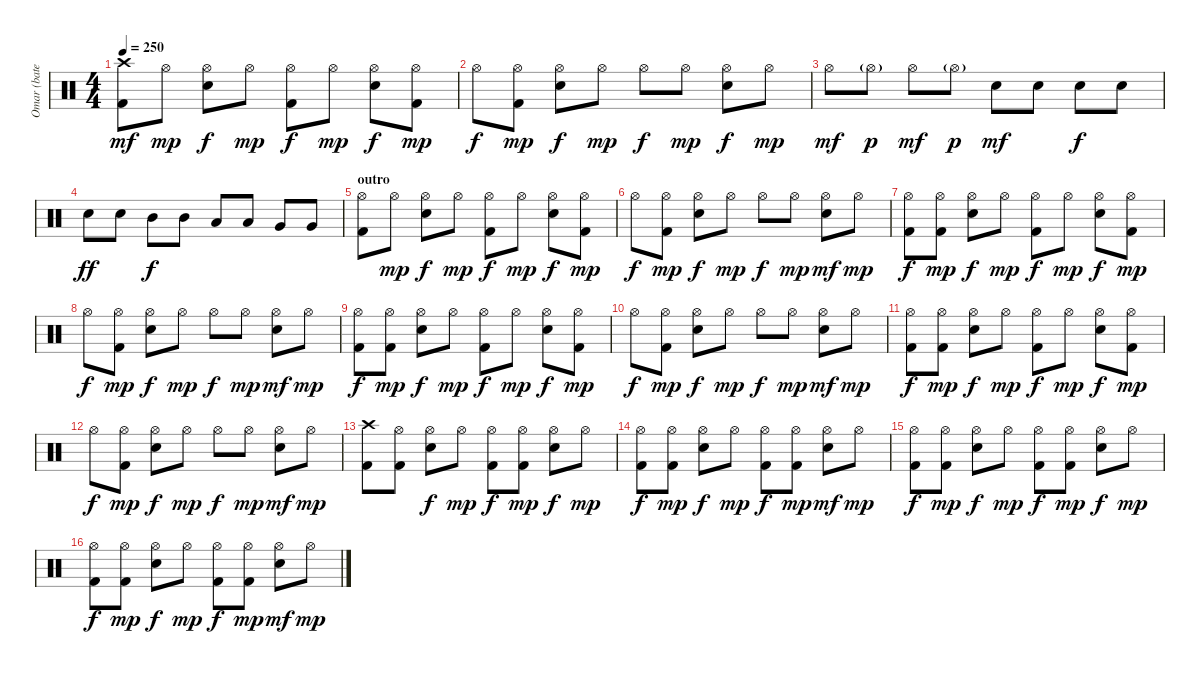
\track ("Omar (batería)" "Omar (bate") {instrument percussion}
\staff {score}
\articulation defaults
\ts (4 4)
\tempo 250
\clef neutral
\ks c
("Crash high (hit)" "Kick (hit) 2").8{dy mf} "Hi-Hat (open)".8{dy mp} ("Hi-Hat (open)" "Snare (hit) 2").8{dy f} "Hi-Hat (open)".8{dy mp} ("Hi-Hat (open)" "Kick (hit) 2").8{dy f} "Hi-Hat (open)".8{dy mp} ("Hi-Hat (open)" "Snare (hit) 2").8{dy f} ("Hi-Hat (open)" "Kick (hit) 2").8{dy mp} |
"Hi-Hat (open)".8{dy f} ("Hi-Hat (open)" "Kick (hit) 2").8{dy mp} ("Hi-Hat (open)" "Snare (hit) 2").8{dy f} "Hi-Hat (open)".8{dy mp} "Hi-Hat (open)".8{dy f} "Hi-Hat (open)".8{dy mp} ("Hi-Hat (open)" "Snare (hit) 2").8{dy f} "Hi-Hat (open)".8{dy mp} |
"Hi-Hat (open)".8{dy mf} "Hi-Hat (open)"{g}.8{dy p} "Hi-Hat (open)".8{dy mf} "Hi-Hat (open)"{g}.8{dy p} "Snare (hit) 2".8{dy mf} "Snare (hit) 2".8 "Snare (hit) 2".8{dy f} "Snare (hit) 2".8 |
"Snare (hit) 2".8{dy ff} "Snare (hit) 2".8 "Mid Tom (hit)".8{dy f} "Mid Tom (hit)".8 "Low Tom (hit)".8 "Low Tom (hit)".8 "Very Low Tom (hit)".8 "Very Low Tom (hit)".8 |
\section ("" "outro")
("Hi-Hat (open)" "Kick (hit) 2").8 "Hi-Hat (open)".8{dy mp} ("Hi-Hat (open)" "Snare (hit) 2").8{dy f} "Hi-Hat (open)".8{dy mp} ("Hi-Hat (open)" "Kick (hit) 2").8{dy f} "Hi-Hat (open)".8{dy mp} ("Hi-Hat (open)" "Snare (hit) 2").8{dy f} ("Hi-Hat (open)" "Kick (hit) 2").8{dy mp} |
"Hi-Hat (open)".8{dy f} ("Hi-Hat (open)" "Kick (hit) 2").8{dy mp} ("Hi-Hat (open)" "Snare (hit) 2").8{dy f} "Hi-Hat (open)".8{dy mp} "Hi-Hat (open)".8{dy f} "Hi-Hat (open)".8{dy mp} ("Hi-Hat (open)" "Snare (hit) 2").8{dy mf} "Hi-Hat (open)".8{dy mp} |
("Hi-Hat (open)" "Kick (hit) 2").8{dy f} ("Hi-Hat (open)" "Kick (hit) 2").8{dy mp} ("Hi-Hat (open)" "Snare (hit) 2").8{dy f} "Hi-Hat (open)".8{dy mp} ("Hi-Hat (open)" "Kick (hit) 2").8{dy f} "Hi-Hat (open)".8{dy mp} ("Hi-Hat (open)" "Snare (hit) 2").8{dy f} ("Hi-Hat (open)" "Kick (hit) 2").8{dy mp} |
"Hi-Hat (open)".8{dy f} ("Hi-Hat (open)" "Kick (hit) 2").8{dy mp} ("Hi-Hat (open)" "Snare (hit) 2").8{dy f} "Hi-Hat (open)".8{dy mp} "Hi-Hat (open)".8{dy f} "Hi-Hat (open)".8{dy mp} ("Hi-Hat (open)" "Snare (hit) 2").8{dy mf} "Hi-Hat (open)".8{dy mp} |
("Hi-Hat (open)" "Kick (hit) 2").8{dy f} ("Hi-Hat (open)" "Kick (hit) 2").8{dy mp} ("Hi-Hat (open)" "Snare (hit) 2").8{dy f} "Hi-Hat (open)".8{dy mp} ("Hi-Hat (open)" "Kick (hit) 2").8{dy f} "Hi-Hat (open)".8{dy mp} ("Hi-Hat (open)" "Snare (hit) 2").8{dy f} ("Hi-Hat (open)" "Kick (hit) 2").8{dy mp} |
"Hi-Hat (open)".8{dy f} ("Hi-Hat (open)" "Kick (hit) 2").8{dy mp} ("Hi-Hat (open)" "Snare (hit) 2").8{dy f} "Hi-Hat (open)".8{dy mp} "Hi-Hat (open)".8{dy f} "Hi-Hat (open)".8{dy mp} ("Hi-Hat (open)" "Snare (hit) 2").8{dy mf} "Hi-Hat (open)".8{dy mp} |
("Hi-Hat (open)" "Kick (hit) 2").8{dy f} ("Hi-Hat (open)" "Kick (hit) 2").8{dy mp} ("Hi-Hat (open)" "Snare (hit) 2").8{dy f} "Hi-Hat (open)".8{dy mp} ("Hi-Hat (open)" "Kick (hit) 2").8{dy f} "Hi-Hat (open)".8{dy mp} ("Hi-Hat (open)" "Snare (hit) 2").8{dy f} ("Hi-Hat (open)" "Kick (hit) 2").8{dy mp} |
"Hi-Hat (open)".8{dy f} ("Hi-Hat (open)" "Kick (hit) 2").8{dy mp} ("Hi-Hat (open)" "Snare (hit) 2").8{dy f} "Hi-Hat (open)".8{dy mp} "Hi-Hat (open)".8{dy f} "Hi-Hat (open)".8{dy mp} ("Hi-Hat (open)" "Snare (hit) 2").8{dy mf} "Hi-Hat (open)".8{dy mp} |
("Crash high (hit)" "Kick (hit) 2").8 ("Hi-Hat (open)" "Kick (hit) 2").8 ("Hi-Hat (open)" "Snare (hit) 2").8{dy f} "Hi-Hat (open)".8{dy mp} ("Hi-Hat (open)" "Kick (hit) 2").8{dy f} ("Hi-Hat (open)" "Kick (hit) 2").8{dy mp} ("Hi-Hat (open)" "Snare (hit) 2").8{dy f} "Hi-Hat (open)".8{dy mp} |
("Hi-Hat (open)" "Kick (hit) 2").8{dy f} ("Hi-Hat (open)" "Kick (hit) 2").8{dy mp} ("Hi-Hat (open)" "Snare (hit) 2").8{dy f} "Hi-Hat (open)".8{dy mp} ("Hi-Hat (open)" "Kick (hit) 2").8{dy f} ("Hi-Hat (open)" "Kick (hit) 2").8{dy mp} ("Hi-Hat (open)" "Snare (hit) 2").8{dy mf} "Hi-Hat (open)".8{dy mp} |
("Hi-Hat (open)" "Kick (hit) 2").8{dy f} ("Hi-Hat (open)" "Kick (hit) 2").8{dy mp} ("Hi-Hat (open)" "Snare (hit) 2").8{dy f} "Hi-Hat (open)".8{dy mp} ("Hi-Hat (open)" "Kick (hit) 2").8{dy f} ("Hi-Hat (open)" "Kick (hit) 2").8{dy mp} ("Hi-Hat (open)" "Snare (hit) 2").8{dy f} "Hi-Hat (open)".8{dy mp} |
("Hi-Hat (open)" "Kick (hit) 2").8{dy f} ("Hi-Hat (open)" "Kick (hit) 2").8{dy mp} ("Hi-Hat (open)" "Snare (hit) 2").8{dy f} "Hi-Hat (open)".8{dy mp} ("Hi-Hat (open)" "Kick (hit) 2").8{dy f} ("Hi-Hat (open)" "Kick (hit) 2").8{dy mp} ("Hi-Hat (open)" "Snare (hit) 2").8{dy mf} "Hi-Hat (open)".8{dy mp}
